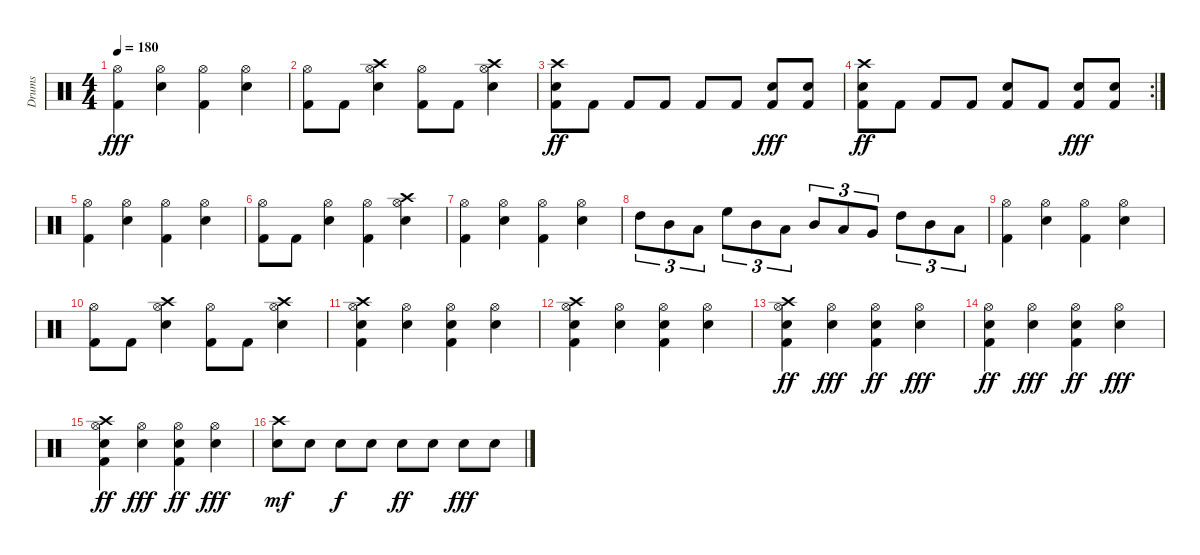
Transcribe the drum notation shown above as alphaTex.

\track ("Drums" "Drums") {instrument percussion}
\staff {score}
\articulation defaults
\ts (4 4)
\tempo 180
\clef neutral
\ks c
("Hi-Hat (open)" "Kick (hit) 2").4{dy fff} ("Hi-Hat (open)" "Snare (hit) 2").4 ("Hi-Hat (open)" "Kick (hit) 2").4 ("Hi-Hat (open)" "Snare (hit) 2").4 |
("Hi-Hat (open)" "Kick (hit) 2").8 "Kick (hit) 2".8 ("Hi-Hat (open)" "Crash high (hit)" "Snare (hit) 2").4 ("Hi-Hat (open)" "Kick (hit) 2").8 "Kick (hit) 2".8 ("Hi-Hat (open)" "Crash high (hit)" "Snare (hit) 2").4 |
("Crash high (hit)" "Snare (hit) 2" "Kick (hit) 2").8{dy ff} "Kick (hit) 2".8 "Kick (hit) 2".8 "Kick (hit) 2".8 "Kick (hit) 2".8 "Kick (hit) 2".8 ("Snare (hit) 2" "Kick (hit) 2").8{dy fff} ("Snare (hit) 2" "Kick (hit) 2").8 |
\rc 2
("Crash high (hit)" "Snare (hit) 2" "Kick (hit) 2").8{dy ff} "Kick (hit) 2".8 "Kick (hit) 2".8 "Kick (hit) 2".8 ("Snare (hit) 2" "Kick (hit) 2").8 "Kick (hit) 2".8 ("Snare (hit) 2" "Kick (hit) 2").8{dy fff} ("Snare (hit) 2" "Kick (hit) 2").8 |
("Hi-Hat (open)" "Kick (hit) 2").4 ("Hi-Hat (open)" "Snare (hit) 2").4 ("Hi-Hat (open)" "Kick (hit) 2").4 ("Hi-Hat (open)" "Snare (hit) 2").4 |
("Hi-Hat (open)" "Kick (hit) 2").8 "Kick (hit) 2".8 ("Hi-Hat (open)" "Snare (hit) 2").4 ("Hi-Hat (open)" "Kick (hit) 2").4 ("Hi-Hat (open)" "Crash high (hit)" "Snare (hit) 2").4 |
("Hi-Hat (open)" "Kick (hit) 2").4 ("Hi-Hat (open)" "Snare (hit) 2").4 ("Hi-Hat (open)" "Kick (hit) 2").4 ("Hi-Hat (open)" "Snare (hit) 2").4 |
"High Tom (hit)".8{tu (3 2)} "Mid Tom (hit)".8{tu (3 2)} "Low Tom (hit)".8{tu (3 2)} "High Floor Tom (hit)".8{tu (3 2)} "Mid Tom (hit)".8{tu (3 2)} "Low Tom (hit)".8{tu (3 2)} "Mid Tom (hit)".8{tu (3 2)} "Low Tom (hit)".8{tu (3 2)} "Very Low Tom (hit)".8{tu (3 2)} "High Tom (hit)".8{tu (3 2)} "Mid Tom (hit)".8{tu (3 2)} "Low Tom (hit)".8{tu (3 2)} |
("Hi-Hat (open)" "Kick (hit) 2").4 ("Hi-Hat (open)" "Snare (hit) 2").4 ("Hi-Hat (open)" "Kick (hit) 2").4 ("Hi-Hat (open)" "Snare (hit) 2").4 |
("Hi-Hat (open)" "Kick (hit) 2").8 "Kick (hit) 2".8 ("Hi-Hat (open)" "Crash high (hit)" "Snare (hit) 2").4 ("Hi-Hat (open)" "Kick (hit) 2").8 "Kick (hit) 2".8 ("Hi-Hat (open)" "Crash high (hit)" "Snare (hit) 2").4 |
("Hi-Hat (open)" "Crash high (hit)" "Snare (hit) 2" "Kick (hit) 2").4 ("Hi-Hat (open)" "Snare (hit) 2").4 ("Hi-Hat (open)" "Snare (hit) 2" "Kick (hit) 2").4 ("Hi-Hat (open)" "Snare (hit) 2").4 |
("Hi-Hat (open)" "Crash high (hit)" "Snare (hit) 2" "Kick (hit) 2").4 ("Hi-Hat (open)" "Snare (hit) 2").4 ("Hi-Hat (open)" "Snare (hit) 2" "Kick (hit) 2").4 ("Hi-Hat (open)" "Snare (hit) 2").4 |
("Hi-Hat (open)" "Crash high (hit)" "Snare (hit) 2" "Kick (hit) 2").4{dy ff} ("Hi-Hat (open)" "Snare (hit) 2").4{dy fff} ("Hi-Hat (open)" "Snare (hit) 2" "Kick (hit) 2").4{dy ff} ("Hi-Hat (open)" "Snare (hit) 2").4{dy fff} |
("Hi-Hat (open)" "Snare (hit) 2" "Kick (hit) 2").4{dy ff} ("Hi-Hat (open)" "Snare (hit) 2").4{dy fff} ("Hi-Hat (open)" "Snare (hit) 2" "Kick (hit) 2").4{dy ff} ("Hi-Hat (open)" "Snare (hit) 2").4{dy fff} |
("Hi-Hat (open)" "Crash high (hit)" "Snare (hit) 2" "Kick (hit) 2").4{dy ff} ("Hi-Hat (open)" "Snare (hit) 2").4{dy fff} ("Hi-Hat (open)" "Snare (hit) 2" "Kick (hit) 2").4{dy ff} ("Hi-Hat (open)" "Snare (hit) 2").4{dy fff} |
("Crash high (hit)" "Snare (hit) 2").8{dy mf} "Snare (hit) 2".8 "Snare (hit) 2".8{dy f} "Snare (hit) 2".8 "Snare (hit) 2".8{dy ff} "Snare (hit) 2".8 "Snare (hit) 2".8{dy fff} "Snare (hit) 2".8
